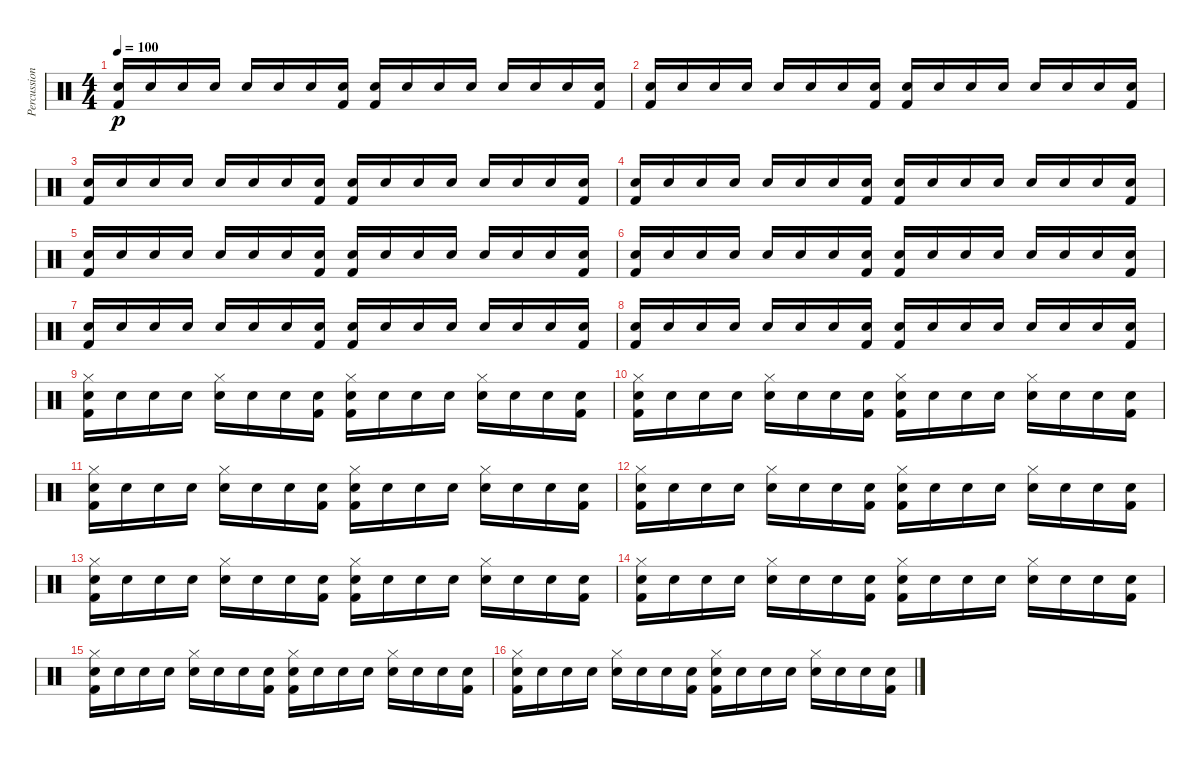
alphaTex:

\track ("Percussion" "Percussion") {instrument percussion}
\staff {score}
\articulation defaults
\ts (4 4)
\tempo 100
\clef neutral
\ks c
("Snare (hit) 2" "Kick (hit) 2").16{dy p} "Snare (hit) 2".16 "Snare (hit) 2".16 "Snare (hit) 2".16 "Snare (hit) 2".16 "Snare (hit) 2".16 "Snare (hit) 2".16 ("Snare (hit) 2" "Kick (hit) 2").16 ("Snare (hit) 2" "Kick (hit) 2").16 "Snare (hit) 2".16 "Snare (hit) 2".16 "Snare (hit) 2".16 "Snare (hit) 2".16 "Snare (hit) 2".16 "Snare (hit) 2".16 ("Snare (hit) 2" "Kick (hit) 2").16 |
("Snare (hit) 2" "Kick (hit) 2").16 "Snare (hit) 2".16 "Snare (hit) 2".16 "Snare (hit) 2".16 "Snare (hit) 2".16 "Snare (hit) 2".16 "Snare (hit) 2".16 ("Snare (hit) 2" "Kick (hit) 2").16 ("Snare (hit) 2" "Kick (hit) 2").16 "Snare (hit) 2".16 "Snare (hit) 2".16 "Snare (hit) 2".16 "Snare (hit) 2".16 "Snare (hit) 2".16 "Snare (hit) 2".16 ("Snare (hit) 2" "Kick (hit) 2").16 |
("Snare (hit) 2" "Kick (hit) 2").16 "Snare (hit) 2".16 "Snare (hit) 2".16 "Snare (hit) 2".16 "Snare (hit) 2".16 "Snare (hit) 2".16 "Snare (hit) 2".16 ("Snare (hit) 2" "Kick (hit) 2").16 ("Snare (hit) 2" "Kick (hit) 2").16 "Snare (hit) 2".16 "Snare (hit) 2".16 "Snare (hit) 2".16 "Snare (hit) 2".16 "Snare (hit) 2".16 "Snare (hit) 2".16 ("Snare (hit) 2" "Kick (hit) 2").16 |
("Snare (hit) 2" "Kick (hit) 2").16 "Snare (hit) 2".16 "Snare (hit) 2".16 "Snare (hit) 2".16 "Snare (hit) 2".16 "Snare (hit) 2".16 "Snare (hit) 2".16 ("Snare (hit) 2" "Kick (hit) 2").16 ("Snare (hit) 2" "Kick (hit) 2").16 "Snare (hit) 2".16 "Snare (hit) 2".16 "Snare (hit) 2".16 "Snare (hit) 2".16 "Snare (hit) 2".16 "Snare (hit) 2".16 ("Snare (hit) 2" "Kick (hit) 2").16 |
("Snare (hit) 2" "Kick (hit) 2").16 "Snare (hit) 2".16 "Snare (hit) 2".16 "Snare (hit) 2".16 "Snare (hit) 2".16 "Snare (hit) 2".16 "Snare (hit) 2".16 ("Snare (hit) 2" "Kick (hit) 2").16 ("Snare (hit) 2" "Kick (hit) 2").16 "Snare (hit) 2".16 "Snare (hit) 2".16 "Snare (hit) 2".16 "Snare (hit) 2".16 "Snare (hit) 2".16 "Snare (hit) 2".16 ("Snare (hit) 2" "Kick (hit) 2").16 |
("Snare (hit) 2" "Kick (hit) 2").16 "Snare (hit) 2".16 "Snare (hit) 2".16 "Snare (hit) 2".16 "Snare (hit) 2".16 "Snare (hit) 2".16 "Snare (hit) 2".16 ("Snare (hit) 2" "Kick (hit) 2").16 ("Snare (hit) 2" "Kick (hit) 2").16 "Snare (hit) 2".16 "Snare (hit) 2".16 "Snare (hit) 2".16 "Snare (hit) 2".16 "Snare (hit) 2".16 "Snare (hit) 2".16 ("Snare (hit) 2" "Kick (hit) 2").16 |
("Snare (hit) 2" "Kick (hit) 2").16 "Snare (hit) 2".16 "Snare (hit) 2".16 "Snare (hit) 2".16 "Snare (hit) 2".16 "Snare (hit) 2".16 "Snare (hit) 2".16 ("Snare (hit) 2" "Kick (hit) 2").16 ("Snare (hit) 2" "Kick (hit) 2").16 "Snare (hit) 2".16 "Snare (hit) 2".16 "Snare (hit) 2".16 "Snare (hit) 2".16 "Snare (hit) 2".16 "Snare (hit) 2".16 ("Snare (hit) 2" "Kick (hit) 2").16 |
("Snare (hit) 2" "Kick (hit) 2").16 "Snare (hit) 2".16 "Snare (hit) 2".16 "Snare (hit) 2".16 "Snare (hit) 2".16 "Snare (hit) 2".16 "Snare (hit) 2".16 ("Snare (hit) 2" "Kick (hit) 2").16 ("Snare (hit) 2" "Kick (hit) 2").16 "Snare (hit) 2".16 "Snare (hit) 2".16 "Snare (hit) 2".16 "Snare (hit) 2".16 "Snare (hit) 2".16 "Snare (hit) 2".16 ("Snare (hit) 2" "Kick (hit) 2").16 |
("Hi-Hat (closed)" "Snare (hit) 2" "Kick (hit) 2").16 "Snare (hit) 2".16 "Snare (hit) 2".16 "Snare (hit) 2".16 ("Hi-Hat (closed)" "Snare (hit) 2").16 "Snare (hit) 2".16 "Snare (hit) 2".16 ("Snare (hit) 2" "Kick (hit) 2").16 ("Hi-Hat (closed)" "Snare (hit) 2" "Kick (hit) 2").16 "Snare (hit) 2".16 "Snare (hit) 2".16 "Snare (hit) 2".16 ("Hi-Hat (closed)" "Snare (hit) 2").16 "Snare (hit) 2".16 "Snare (hit) 2".16 ("Snare (hit) 2" "Kick (hit) 2").16 |
("Hi-Hat (closed)" "Snare (hit) 2" "Kick (hit) 2").16 "Snare (hit) 2".16 "Snare (hit) 2".16 "Snare (hit) 2".16 ("Hi-Hat (closed)" "Snare (hit) 2").16 "Snare (hit) 2".16 "Snare (hit) 2".16 ("Snare (hit) 2" "Kick (hit) 2").16 ("Hi-Hat (closed)" "Snare (hit) 2" "Kick (hit) 2").16 "Snare (hit) 2".16 "Snare (hit) 2".16 "Snare (hit) 2".16 ("Hi-Hat (closed)" "Snare (hit) 2").16 "Snare (hit) 2".16 "Snare (hit) 2".16 ("Snare (hit) 2" "Kick (hit) 2").16 |
("Hi-Hat (closed)" "Snare (hit) 2" "Kick (hit) 2").16 "Snare (hit) 2".16 "Snare (hit) 2".16 "Snare (hit) 2".16 ("Hi-Hat (closed)" "Snare (hit) 2").16 "Snare (hit) 2".16 "Snare (hit) 2".16 ("Snare (hit) 2" "Kick (hit) 2").16 ("Hi-Hat (closed)" "Snare (hit) 2" "Kick (hit) 2").16 "Snare (hit) 2".16 "Snare (hit) 2".16 "Snare (hit) 2".16 ("Hi-Hat (closed)" "Snare (hit) 2").16 "Snare (hit) 2".16 "Snare (hit) 2".16 ("Snare (hit) 2" "Kick (hit) 2").16 |
("Hi-Hat (closed)" "Snare (hit) 2" "Kick (hit) 2").16 "Snare (hit) 2".16 "Snare (hit) 2".16 "Snare (hit) 2".16 ("Hi-Hat (closed)" "Snare (hit) 2").16 "Snare (hit) 2".16 "Snare (hit) 2".16 ("Snare (hit) 2" "Kick (hit) 2").16 ("Hi-Hat (closed)" "Snare (hit) 2" "Kick (hit) 2").16 "Snare (hit) 2".16 "Snare (hit) 2".16 "Snare (hit) 2".16 ("Hi-Hat (closed)" "Snare (hit) 2").16 "Snare (hit) 2".16 "Snare (hit) 2".16 ("Snare (hit) 2" "Kick (hit) 2").16 |
("Hi-Hat (closed)" "Snare (hit) 2" "Kick (hit) 2").16 "Snare (hit) 2".16 "Snare (hit) 2".16 "Snare (hit) 2".16 ("Hi-Hat (closed)" "Snare (hit) 2").16 "Snare (hit) 2".16 "Snare (hit) 2".16 ("Snare (hit) 2" "Kick (hit) 2").16 ("Hi-Hat (closed)" "Snare (hit) 2" "Kick (hit) 2").16 "Snare (hit) 2".16 "Snare (hit) 2".16 "Snare (hit) 2".16 ("Hi-Hat (closed)" "Snare (hit) 2").16 "Snare (hit) 2".16 "Snare (hit) 2".16 ("Snare (hit) 2" "Kick (hit) 2").16 |
("Hi-Hat (closed)" "Snare (hit) 2" "Kick (hit) 2").16 "Snare (hit) 2".16 "Snare (hit) 2".16 "Snare (hit) 2".16 ("Hi-Hat (closed)" "Snare (hit) 2").16 "Snare (hit) 2".16 "Snare (hit) 2".16 ("Snare (hit) 2" "Kick (hit) 2").16 ("Hi-Hat (closed)" "Snare (hit) 2" "Kick (hit) 2").16 "Snare (hit) 2".16 "Snare (hit) 2".16 "Snare (hit) 2".16 ("Hi-Hat (closed)" "Snare (hit) 2").16 "Snare (hit) 2".16 "Snare (hit) 2".16 ("Snare (hit) 2" "Kick (hit) 2").16 |
("Hi-Hat (closed)" "Snare (hit) 2" "Kick (hit) 2").16 "Snare (hit) 2".16 "Snare (hit) 2".16 "Snare (hit) 2".16 ("Hi-Hat (closed)" "Snare (hit) 2").16 "Snare (hit) 2".16 "Snare (hit) 2".16 ("Snare (hit) 2" "Kick (hit) 2").16 ("Hi-Hat (closed)" "Snare (hit) 2" "Kick (hit) 2").16 "Snare (hit) 2".16 "Snare (hit) 2".16 "Snare (hit) 2".16 ("Hi-Hat (closed)" "Snare (hit) 2").16 "Snare (hit) 2".16 "Snare (hit) 2".16 ("Snare (hit) 2" "Kick (hit) 2").16 |
("Hi-Hat (closed)" "Snare (hit) 2" "Kick (hit) 2").16 "Snare (hit) 2".16 "Snare (hit) 2".16 "Snare (hit) 2".16 ("Hi-Hat (closed)" "Snare (hit) 2").16 "Snare (hit) 2".16 "Snare (hit) 2".16 ("Snare (hit) 2" "Kick (hit) 2").16 ("Hi-Hat (closed)" "Snare (hit) 2" "Kick (hit) 2").16 "Snare (hit) 2".16 "Snare (hit) 2".16 "Snare (hit) 2".16 ("Hi-Hat (closed)" "Snare (hit) 2").16 "Snare (hit) 2".16 "Snare (hit) 2".16 ("Snare (hit) 2" "Kick (hit) 2").16
